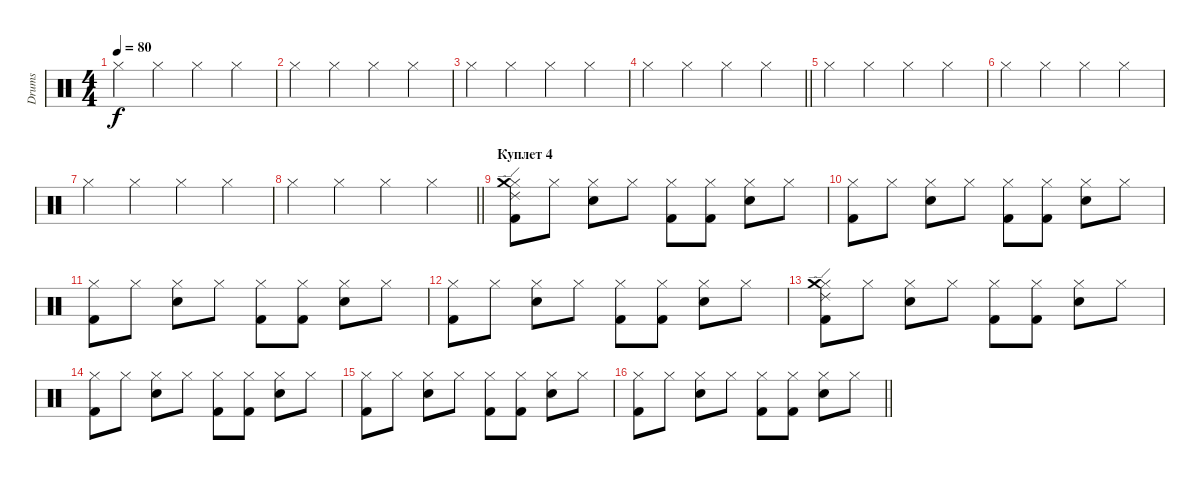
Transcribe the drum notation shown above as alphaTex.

\track ("Drums" "Drums") {instrument percussion}
\staff {score}
\articulation defaults
\ts (4 4)
\tempo 80
\clef neutral
\ks c "Hi-Hat (closed)".4{dy f} "Hi-Hat (closed)".4 "Hi-Hat (closed)".4 "Hi-Hat (closed)".4
|
"Hi-Hat (closed)".4 "Hi-Hat (closed)".4 "Hi-Hat (closed)".4 "Hi-Hat (closed)".4 |
"Hi-Hat (closed)".4 "Hi-Hat (closed)".4 "Hi-Hat (closed)".4 "Hi-Hat (closed)".4 |
\barLineRight lightlight "Hi-Hat (closed)".4 "Hi-Hat (closed)".4 "Hi-Hat (closed)".4 "Hi-Hat (closed)".4
|
"Hi-Hat (closed)".4 "Hi-Hat (closed)".4 "Hi-Hat (closed)".4 "Hi-Hat (closed)".4 |
"Hi-Hat (closed)".4 "Hi-Hat (closed)".4 "Hi-Hat (closed)".4 "Hi-Hat (closed)".4 |
"Hi-Hat (closed)".4 "Hi-Hat (closed)".4 "Hi-Hat (closed)".4 "Hi-Hat (closed)".4 |
\barLineRight lightlight "Hi-Hat (closed)".4 "Hi-Hat (closed)".4 "Hi-Hat (closed)".4 "Hi-Hat (closed)".4
|
\section ("" "Куплет 4")
("Hi-Hat (closed)" "Kick (hit) 2" "Crash medium (hit)" "Ride (edge) 2").8 "Hi-Hat (closed)".8 ("Hi-Hat (closed)" "Snare (hit) 2").8 "Hi-Hat (closed)".8 ("Hi-Hat (closed)" "Kick (hit) 2").8 ("Hi-Hat (closed)" "Kick (hit) 2").8 ("Hi-Hat (closed)" "Snare (hit) 2").8 "Hi-Hat (closed)".8 |
("Hi-Hat (closed)" "Kick (hit) 2").8 "Hi-Hat (closed)".8 ("Hi-Hat (closed)" "Snare (hit) 2").8 "Hi-Hat (closed)".8 ("Hi-Hat (closed)" "Kick (hit) 2").8 ("Hi-Hat (closed)" "Kick (hit) 2").8 ("Hi-Hat (closed)" "Snare (hit) 2").8 "Hi-Hat (closed)".8 |
("Hi-Hat (closed)" "Kick (hit) 2").8 "Hi-Hat (closed)".8 ("Hi-Hat (closed)" "Snare (hit) 2").8 "Hi-Hat (closed)".8 ("Hi-Hat (closed)" "Kick (hit) 2").8 ("Hi-Hat (closed)" "Kick (hit) 2").8 ("Hi-Hat (closed)" "Snare (hit) 2").8 "Hi-Hat (closed)".8 |
("Hi-Hat (closed)" "Kick (hit) 2").8 "Hi-Hat (closed)".8 ("Hi-Hat (closed)" "Snare (hit) 2").8 "Hi-Hat (closed)".8 ("Hi-Hat (closed)" "Kick (hit) 2").8 ("Hi-Hat (closed)" "Kick (hit) 2").8 ("Hi-Hat (closed)" "Snare (hit) 2").8 "Hi-Hat (closed)".8 |
("Hi-Hat (closed)" "Kick (hit) 2" "Crash medium (hit)" "Ride (edge) 2").8 "Hi-Hat (closed)".8 ("Hi-Hat (closed)" "Snare (hit) 2").8 "Hi-Hat (closed)".8 ("Hi-Hat (closed)" "Kick (hit) 2").8 ("Hi-Hat (closed)" "Kick (hit) 2").8 ("Hi-Hat (closed)" "Snare (hit) 2").8 "Hi-Hat (closed)".8 |
("Hi-Hat (closed)" "Kick (hit) 2").8 "Hi-Hat (closed)".8 ("Hi-Hat (closed)" "Snare (hit) 2").8 "Hi-Hat (closed)".8 ("Hi-Hat (closed)" "Kick (hit) 2").8 ("Hi-Hat (closed)" "Kick (hit) 2").8 ("Hi-Hat (closed)" "Snare (hit) 2").8 "Hi-Hat (closed)".8 |
("Hi-Hat (closed)" "Kick (hit) 2").8 "Hi-Hat (closed)".8 ("Hi-Hat (closed)" "Snare (hit) 2").8 "Hi-Hat (closed)".8 ("Hi-Hat (closed)" "Kick (hit) 2").8 ("Hi-Hat (closed)" "Kick (hit) 2").8 ("Hi-Hat (closed)" "Snare (hit) 2").8 "Hi-Hat (closed)".8 |
\barLineRight lightlight
("Hi-Hat (closed)" "Kick (hit) 2").8 "Hi-Hat (closed)".8 ("Hi-Hat (closed)" "Snare (hit) 2").8 "Hi-Hat (closed)".8 ("Hi-Hat (closed)" "Kick (hit) 2").8 ("Hi-Hat (closed)" "Kick (hit) 2").8 ("Hi-Hat (closed)" "Snare (hit) 2").8 "Hi-Hat (closed)".8
